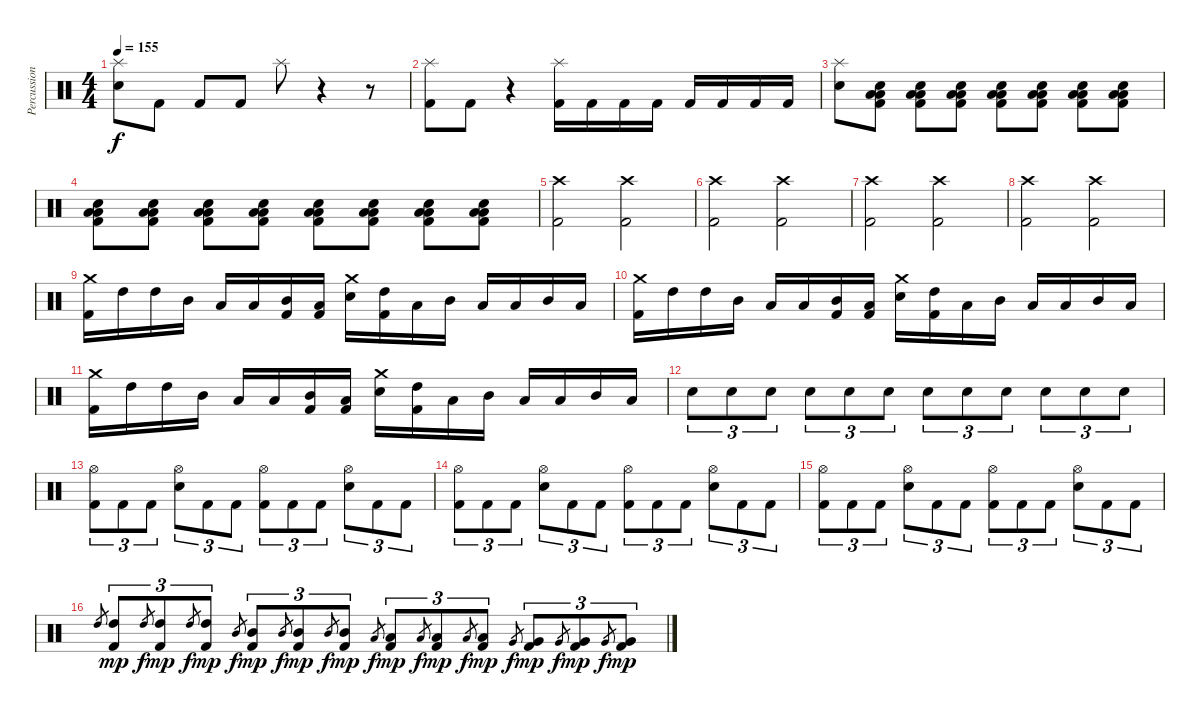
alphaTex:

\track ("Percussion" "Percussion") {instrument percussion}
\staff {score}
\articulation defaults
\ts (4 4)
\tempo 155
\clef neutral
\ks c
("Splash (hit)" "Snare (hit) 2").8{dy f} "Kick (hit) 2".8 "Kick (hit) 2".8 "Kick (hit) 2".8 "Splash (hit)".8 r.4 r.8 |
("Splash (hit)" "Kick (hit) 2").8 "Kick (hit) 2".8 r.4 ("Splash (hit)" "Kick (hit) 2").16 "Kick (hit) 2".16 "Kick (hit) 2".16 "Kick (hit) 2".16 "Kick (hit) 2".16 "Kick (hit) 2".16 "Kick (hit) 2".16 "Kick (hit) 2".16 |
("Splash (hit)" "Snare (hit) 2").8 ("Kick (hit) 2" "Low Tom (hit)" "Low Floor Tom (hit)" "Snare (hit) 2").8 ("Kick (hit) 2" "Low Tom (hit)" "Low Floor Tom (hit)" "Snare (hit) 2").8 ("Kick (hit) 2" "Low Tom (hit)" "Low Floor Tom (hit)" "Snare (hit) 2").8 ("Kick (hit) 2" "Low Tom (hit)" "Low Floor Tom (hit)" "Snare (hit) 2").8 ("Kick (hit) 2" "Low Tom (hit)" "Low Floor Tom (hit)" "Snare (hit) 2").8 ("Kick (hit) 2" "Low Tom (hit)" "Low Floor Tom (hit)" "Snare (hit) 2").8 ("Kick (hit) 2" "Low Tom (hit)" "Low Floor Tom (hit)" "Snare (hit) 2").8 |
("Kick (hit) 2" "Low Tom (hit)" "Low Floor Tom (hit)" "Snare (hit) 2").8 ("Kick (hit) 2" "Low Tom (hit)" "Low Floor Tom (hit)" "Snare (hit) 2").8 ("Kick (hit) 2" "Low Tom (hit)" "Low Floor Tom (hit)" "Snare (hit) 2").8 ("Kick (hit) 2" "Low Tom (hit)" "Low Floor Tom (hit)" "Snare (hit) 2").8 ("Kick (hit) 2" "Low Tom (hit)" "Low Floor Tom (hit)" "Snare (hit) 2").8 ("Kick (hit) 2" "Low Tom (hit)" "Low Floor Tom (hit)" "Snare (hit) 2").8 ("Kick (hit) 2" "Low Tom (hit)" "Low Floor Tom (hit)" "Snare (hit) 2").8 ("Kick (hit) 2" "Low Tom (hit)" "Low Floor Tom (hit)" "Snare (hit) 2").8 |
("Crash high (hit)" "Kick (hit) 2").2 ("Crash high (hit)" "Kick (hit) 2").2 |
("Crash high (hit)" "Kick (hit) 2").2 ("Crash high (hit)" "Kick (hit) 2").2 |
("Crash high (hit)" "Kick (hit) 2").2 ("Crash high (hit)" "Kick (hit) 2").2 |
("Crash high (hit)" "Kick (hit) 2").2 ("Crash high (hit)" "Kick (hit) 2").2 |
("Crash medium (hit)" "Kick (hit) 2").16 "High Tom (hit)".16 "High Tom (hit)".16 "Mid Tom (hit)".16 "Low Floor Tom (hit)".16 "Low Tom (hit)".16 ("Kick (hit) 2" "Mid Tom (hit)").16 ("Kick (hit) 2" "Low Floor Tom (hit)").16 ("Crash medium (hit)" "Snare (hit) 2").16 ("Kick (hit) 2" "High Tom (hit)").16 "Low Floor Tom (hit)".16 "Mid Tom (hit)".16 "Low Floor Tom (hit)".16 "Low Tom (hit)".16 "Mid Tom (hit)".16 "Low Floor Tom (hit)".16 |
("Crash medium (hit)" "Kick (hit) 2").16 "High Tom (hit)".16 "High Tom (hit)".16 "Mid Tom (hit)".16 "Low Floor Tom (hit)".16 "Low Tom (hit)".16 ("Kick (hit) 2" "Mid Tom (hit)").16 ("Kick (hit) 2" "Low Floor Tom (hit)").16 ("Crash medium (hit)" "Snare (hit) 2").16 ("Kick (hit) 2" "High Tom (hit)").16 "Low Floor Tom (hit)".16 "Mid Tom (hit)".16 "Low Floor Tom (hit)".16 "Low Tom (hit)".16 "Mid Tom (hit)".16 "Low Floor Tom (hit)".16 |
("Crash medium (hit)" "Kick (hit) 2").16 "High Tom (hit)".16 "High Tom (hit)".16 "Mid Tom (hit)".16 "Low Floor Tom (hit)".16 "Low Tom (hit)".16 ("Kick (hit) 2" "Mid Tom (hit)").16 ("Kick (hit) 2" "Low Floor Tom (hit)").16 ("Crash medium (hit)" "Snare (hit) 2").16 ("Kick (hit) 2" "High Tom (hit)").16 "Low Floor Tom (hit)".16 "Mid Tom (hit)".16 "Low Floor Tom (hit)".16 "Low Tom (hit)".16 "Mid Tom (hit)".16 "Low Floor Tom (hit)".16 |
"Snare (hit) 2".8{tu (3 2)} "Snare (hit) 2".8{tu (3 2)} "Snare (hit) 2".8{tu (3 2)} "Snare (hit) 2".8{tu (3 2)} "Snare (hit) 2".8{tu (3 2)} "Snare (hit) 2".8{tu (3 2)} "Snare (hit) 2".8{tu (3 2)} "Snare (hit) 2".8{tu (3 2)} "Snare (hit) 2".8{tu (3 2)} "Snare (hit) 2".8{tu (3 2)} "Snare (hit) 2".8{tu (3 2)} "Snare (hit) 2".8{tu (3 2)} |
("Hi-Hat (open)" "Kick (hit) 2").8{tu (3 2)} "Kick (hit) 2".8{tu (3 2)} "Kick (hit) 2".8{tu (3 2)} ("Hi-Hat (open)" "Snare (hit) 2").8{tu (3 2)} "Kick (hit) 2".8{tu (3 2)} "Kick (hit) 2".8{tu (3 2)} ("Hi-Hat (open)" "Kick (hit) 2").8{tu (3 2)} "Kick (hit) 2".8{tu (3 2)} "Kick (hit) 2".8{tu (3 2)} ("Hi-Hat (open)" "Snare (hit) 2").8{tu (3 2)} "Kick (hit) 2".8{tu (3 2)} "Kick (hit) 2".8{tu (3 2)} |
("Hi-Hat (open)" "Kick (hit) 2").8{tu (3 2)} "Kick (hit) 2".8{tu (3 2)} "Kick (hit) 2".8{tu (3 2)} ("Hi-Hat (open)" "Snare (hit) 2").8{tu (3 2)} "Kick (hit) 2".8{tu (3 2)} "Kick (hit) 2".8{tu (3 2)} ("Hi-Hat (open)" "Kick (hit) 2").8{tu (3 2)} "Kick (hit) 2".8{tu (3 2)} "Kick (hit) 2".8{tu (3 2)} ("Hi-Hat (open)" "Snare (hit) 2").8{tu (3 2)} "Kick (hit) 2".8{tu (3 2)} "Kick (hit) 2".8{tu (3 2)} |
("Hi-Hat (open)" "Kick (hit) 2").8{tu (3 2)} "Kick (hit) 2".8{tu (3 2)} "Kick (hit) 2".8{tu (3 2)} ("Hi-Hat (open)" "Snare (hit) 2").8{tu (3 2)} "Kick (hit) 2".8{tu (3 2)} "Kick (hit) 2".8{tu (3 2)} ("Hi-Hat (open)" "Kick (hit) 2").8{tu (3 2)} "Kick (hit) 2".8{tu (3 2)} "Kick (hit) 2".8{tu (3 2)} ("Hi-Hat (open)" "Snare (hit) 2").8{tu (3 2)} "Kick (hit) 2".8{tu (3 2)} "Kick (hit) 2".8{tu (3 2)} |
"High Tom (hit)".8{gr} ("High Tom (hit)" "Kick (hit) 2").8{tu (3 2) dy mp} "High Tom (hit)".8{gr dy f} ("High Tom (hit)" "Kick (hit) 2").8{tu (3 2) dy mp} "High Tom (hit)".8{gr dy f} ("High Tom (hit)" "Kick (hit) 2").8{tu (3 2) dy mp} "Mid Tom (hit)".8{gr dy f} ("Mid Tom (hit)" "Kick (hit) 2").8{tu (3 2) dy mp} "Mid Tom (hit)".8{gr dy f} ("Mid Tom (hit)" "Kick (hit) 2").8{tu (3 2) dy mp} "Mid Tom (hit)".8{gr dy f} ("Mid Tom (hit)" "Kick (hit) 2").8{tu (3 2) dy mp} "Low Tom (hit)".8{gr dy f} ("Low Tom (hit)" "Kick (hit) 2").8{tu (3 2) dy mp} "Low Tom (hit)".8{gr dy f} ("Low Tom (hit)" "Kick (hit) 2").8{tu (3 2) dy mp} "Low Tom (hit)".8{gr dy f} ("Low Tom (hit)" "Kick (hit) 2").8{tu (3 2) dy mp} "Very Low Tom (hit)".8{gr dy f} ("Very Low Tom (hit)" "Kick (hit) 2").8{tu (3 2) dy mp} "Very Low Tom (hit)".8{gr dy f} ("Very Low Tom (hit)" "Kick (hit) 2").8{tu (3 2) dy mp} "Very Low Tom (hit)".8{gr dy f} ("Very Low Tom (hit)" "Kick (hit) 2").8{tu (3 2) dy mp}
